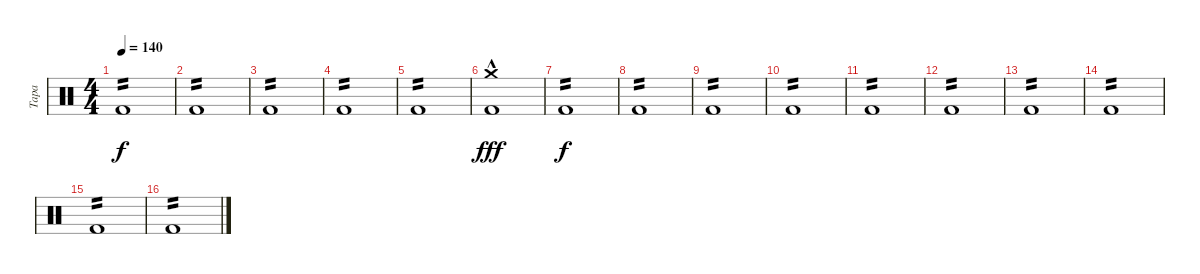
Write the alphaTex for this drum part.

\track ("Tapa" "Tapa") {instrument percussion}
\staff {score}
\articulation defaults
\ts (4 4)
\tempo 140
\clef neutral
\ks c "Kick (hit) 2".1{tp 2 dy f}
|
"Kick (hit) 2".1{tp 2} |
"Kick (hit) 2".1{tp 2} |
"Kick (hit) 2".1{tp 2} |
"Kick (hit) 2".1{tp 2} |
("Kick (hit) 2"{hac} "Crash medium (hit)"{hac}).1{dy fff} |
"Kick (hit) 2".1{tp 2 dy f} |
"Kick (hit) 2".1{tp 2} |
"Kick (hit) 2".1{tp 2} |
"Kick (hit) 2".1{tp 2} |
"Kick (hit) 2".1{tp 2} |
"Kick (hit) 2".1{tp 2} |
"Kick (hit) 2".1{tp 2} |
"Kick (hit) 2".1{tp 2} |
"Kick (hit) 2".1{tp 2} |
"Kick (hit) 2".1{tp 2}
